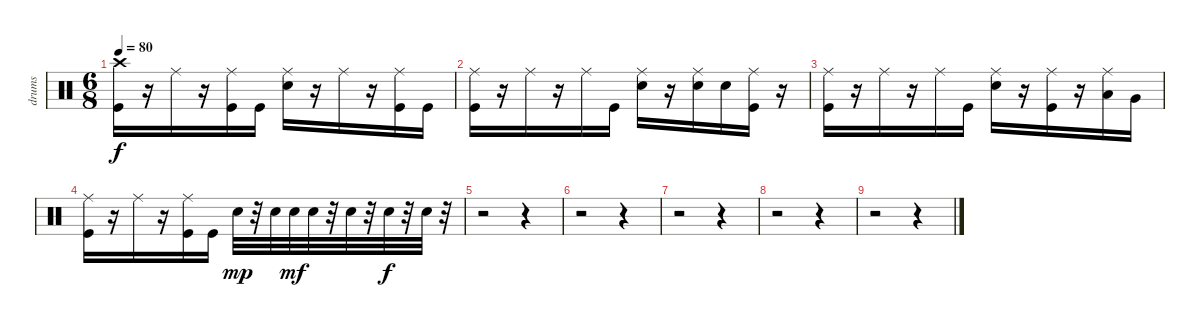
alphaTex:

\track ("drums" "drums") {instrument percussion}
\staff {score}
\articulation defaults
\ts (6 8)
\tempo 80
\clef neutral
\ks c
("Kick (hit)" "Crash high (hit)").16{dy f} r.16 "Ride (middle)".16 r.16 ("Kick (hit)" "Ride (middle)").16 "Kick (hit)".16 ("Electric Snare (hit)" "Ride (middle)").16 r.16 "Ride (middle)".16 r.16 ("Kick (hit)" "Ride (middle)").16 "Kick (hit)".16 |
("Ride (middle)" "Kick (hit)").16 r.16 "Ride (middle)".16 r.16 "Ride (middle)".16 "Kick (hit)".16 ("Ride (middle)" "Electric Snare (hit)").16 r.16 ("Ride (middle)" "Electric Snare (hit)").16 "Electric Snare (hit)".16 ("Kick (hit)" "Ride (middle)").16 r.16 |
("Ride (middle)" "Kick (hit)").16 r.16 "Ride (middle)".16 r.16 "Ride (middle)".16 "Kick (hit)".16 ("Electric Snare (hit)" "Ride (middle)").16 r.16 ("Kick (hit)" "Ride (middle)").16 r.16 ("Ride (middle)" "Low Tom (hit)").16 "Very Low Tom (hit)".16 |
("Ride (middle)" "Kick (hit)").16 r.16 "Ride (middle)".16 r.16 ("Kick (hit)" "Ride (middle)").16 "Kick (hit)".16 "Electric Snare (hit)".32{dy mp} r.32 "Electric Snare (hit)".32 "Electric Snare (hit)".32{dy mf} "Electric Snare (hit)".32 r.32 "Electric Snare (hit)".32 r.32 "Electric Snare (hit)".32{dy f} r.32 "Electric Snare (hit)".32 r.32 |
r.2 r.4 |
r.2 r.4 |
r.2 r.4 |
r.2 r.4 |
r.2 r.4
